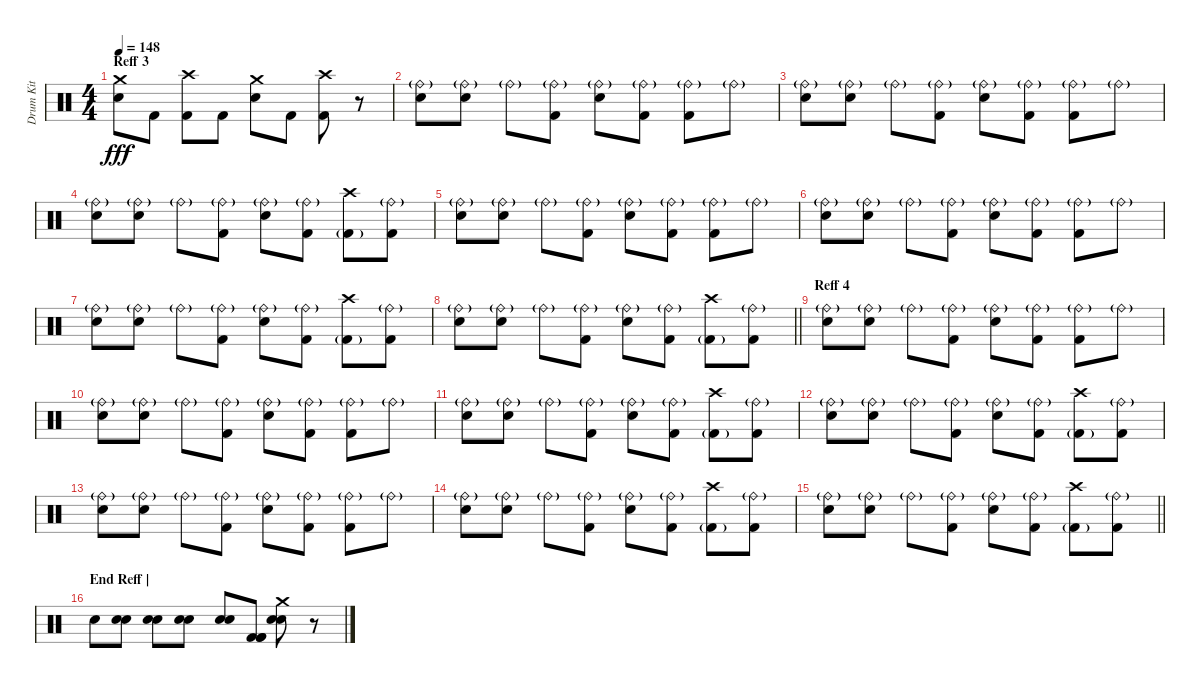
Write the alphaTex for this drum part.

\track ("Drum Kit" "Drum Kit") {instrument percussion}
\staff {score}
\articulation defaults
\ts (4 4)
\section ("" "Reff 3")
\tempo 148
\clef neutral
\ks c
("Crash medium (hit)" "Electric Snare (hit)").8{dy fff} "Kick (hit) 2".8 ("Crash high (hit)" "Kick (hit) 2").8 "Kick (hit) 2".8 ("Electric Snare (hit)" "Crash medium (hit)").8 "Kick (hit) 2".8 ("Kick (hit) 2" "Crash high (hit)").8 r.8 |
("Electric Snare (hit)" "Ride (bell)"{g}).8 ("Ride (bell)"{g} "Electric Snare (hit)").8 "Ride (bell)"{g}.8 ("Ride (bell)"{g} "Kick (hit) 2").8 ("Ride (bell)"{g} "Electric Snare (hit)").8 ("Ride (bell)"{g} "Kick (hit) 2").8 ("Ride (bell)"{g} "Kick (hit) 2").8 "Ride (bell)"{g}.8 |
("Electric Snare (hit)" "Ride (bell)"{g}).8 ("Ride (bell)"{g} "Electric Snare (hit)").8 "Ride (bell)"{g}.8 ("Ride (bell)"{g} "Kick (hit) 2").8 ("Ride (bell)"{g} "Electric Snare (hit)").8 ("Ride (bell)"{g} "Kick (hit) 2").8 ("Ride (bell)"{g} "Kick (hit) 2").8 "Ride (bell)"{g}.8 |
("Electric Snare (hit)" "Ride (bell)"{g}).8 ("Ride (bell)"{g} "Electric Snare (hit)").8 "Ride (bell)"{g}.8 ("Ride (bell)"{g} "Kick (hit) 2").8 ("Ride (bell)"{g} "Electric Snare (hit)").8 ("Ride (bell)"{g} "Kick (hit) 2").8 ("Kick (hit) 2"{g} "Crash high (hit)").8 ("Ride (bell)"{g} "Kick (hit) 2").8 |
("Electric Snare (hit)" "Ride (bell)"{g}).8 ("Ride (bell)"{g} "Electric Snare (hit)").8 "Ride (bell)"{g}.8 ("Ride (bell)"{g} "Kick (hit) 2").8 ("Ride (bell)"{g} "Electric Snare (hit)").8 ("Ride (bell)"{g} "Kick (hit) 2").8 ("Ride (bell)"{g} "Kick (hit) 2").8 "Ride (bell)"{g}.8 |
("Electric Snare (hit)" "Ride (bell)"{g}).8 ("Ride (bell)"{g} "Electric Snare (hit)").8 "Ride (bell)"{g}.8 ("Ride (bell)"{g} "Kick (hit) 2").8 ("Ride (bell)"{g} "Electric Snare (hit)").8 ("Ride (bell)"{g} "Kick (hit) 2").8 ("Ride (bell)"{g} "Kick (hit) 2").8 "Ride (bell)"{g}.8 |
("Electric Snare (hit)" "Ride (bell)"{g}).8 ("Ride (bell)"{g} "Electric Snare (hit)").8 "Ride (bell)"{g}.8 ("Ride (bell)"{g} "Kick (hit) 2").8 ("Ride (bell)"{g} "Electric Snare (hit)").8 ("Ride (bell)"{g} "Kick (hit) 2").8 ("Kick (hit) 2"{g} "Crash high (hit)").8 ("Ride (bell)"{g} "Kick (hit) 2").8 |
\barLineRight lightlight
("Electric Snare (hit)" "Ride (bell)"{g}).8 ("Ride (bell)"{g} "Electric Snare (hit)").8 "Ride (bell)"{g}.8 ("Ride (bell)"{g} "Kick (hit) 2").8 ("Ride (bell)"{g} "Electric Snare (hit)").8 ("Ride (bell)"{g} "Kick (hit) 2").8 ("Kick (hit) 2"{g} "Crash high (hit)").8 ("Ride (bell)"{g} "Kick (hit) 2").8 |
\section ("" "Reff 4")
("Electric Snare (hit)" "Ride (bell)"{g}).8 ("Ride (bell)"{g} "Electric Snare (hit)").8 "Ride (bell)"{g}.8 ("Ride (bell)"{g} "Kick (hit) 2").8 ("Ride (bell)"{g} "Electric Snare (hit)").8 ("Ride (bell)"{g} "Kick (hit) 2").8 ("Ride (bell)"{g} "Kick (hit) 2").8 "Ride (bell)"{g}.8 |
("Electric Snare (hit)" "Ride (bell)"{g}).8 ("Ride (bell)"{g} "Electric Snare (hit)").8 "Ride (bell)"{g}.8 ("Ride (bell)"{g} "Kick (hit) 2").8 ("Ride (bell)"{g} "Electric Snare (hit)").8 ("Ride (bell)"{g} "Kick (hit) 2").8 ("Ride (bell)"{g} "Kick (hit) 2").8 "Ride (bell)"{g}.8 |
("Electric Snare (hit)" "Ride (bell)"{g}).8 ("Ride (bell)"{g} "Electric Snare (hit)").8 "Ride (bell)"{g}.8 ("Ride (bell)"{g} "Kick (hit) 2").8 ("Ride (bell)"{g} "Electric Snare (hit)").8 ("Ride (bell)"{g} "Kick (hit) 2").8 ("Kick (hit) 2"{g} "Crash high (hit)").8 ("Ride (bell)"{g} "Kick (hit) 2").8 |
("Electric Snare (hit)" "Ride (bell)"{g}).8 ("Ride (bell)"{g} "Electric Snare (hit)").8 "Ride (bell)"{g}.8 ("Ride (bell)"{g} "Kick (hit) 2").8 ("Ride (bell)"{g} "Electric Snare (hit)").8 ("Ride (bell)"{g} "Kick (hit) 2").8 ("Kick (hit) 2"{g} "Crash high (hit)").8 ("Ride (bell)"{g} "Kick (hit) 2").8 |
("Electric Snare (hit)" "Ride (bell)"{g}).8 ("Ride (bell)"{g} "Electric Snare (hit)").8 "Ride (bell)"{g}.8 ("Ride (bell)"{g} "Kick (hit) 2").8 ("Ride (bell)"{g} "Electric Snare (hit)").8 ("Ride (bell)"{g} "Kick (hit) 2").8 ("Ride (bell)"{g} "Kick (hit) 2").8 "Ride (bell)"{g}.8 |
("Electric Snare (hit)" "Ride (bell)"{g}).8 ("Ride (bell)"{g} "Electric Snare (hit)").8 "Ride (bell)"{g}.8 ("Ride (bell)"{g} "Kick (hit) 2").8 ("Ride (bell)"{g} "Electric Snare (hit)").8 ("Ride (bell)"{g} "Kick (hit) 2").8 ("Kick (hit) 2"{g} "Crash high (hit)").8 ("Ride (bell)"{g} "Kick (hit) 2").8 |
\barLineRight lightlight
("Electric Snare (hit)" "Ride (bell)"{g}).8 ("Ride (bell)"{g} "Electric Snare (hit)").8 "Ride (bell)"{g}.8 ("Ride (bell)"{g} "Kick (hit) 2").8 ("Ride (bell)"{g} "Electric Snare (hit)").8 ("Ride (bell)"{g} "Kick (hit) 2").8 ("Kick (hit) 2"{g} "Crash high (hit)").8 ("Ride (bell)"{g} "Kick (hit) 2").8 |
\section ("" "End Reff |")
"Electric Snare (hit)".8 ("Electric Snare (hit)" "Electric Snare (hit)").8 ("Electric Snare (hit)" "Electric Snare (hit)").8 ("Electric Snare (hit)" "Electric Snare (hit)").8 ("Electric Snare (hit)" "Electric Snare (hit)").8 ("Kick (hit) 2" "Kick (hit) 2" "Kick (hit) 2").8 ("Crash medium (hit)" "Electric Snare (hit)" "Electric Snare (hit)").8 r.8
